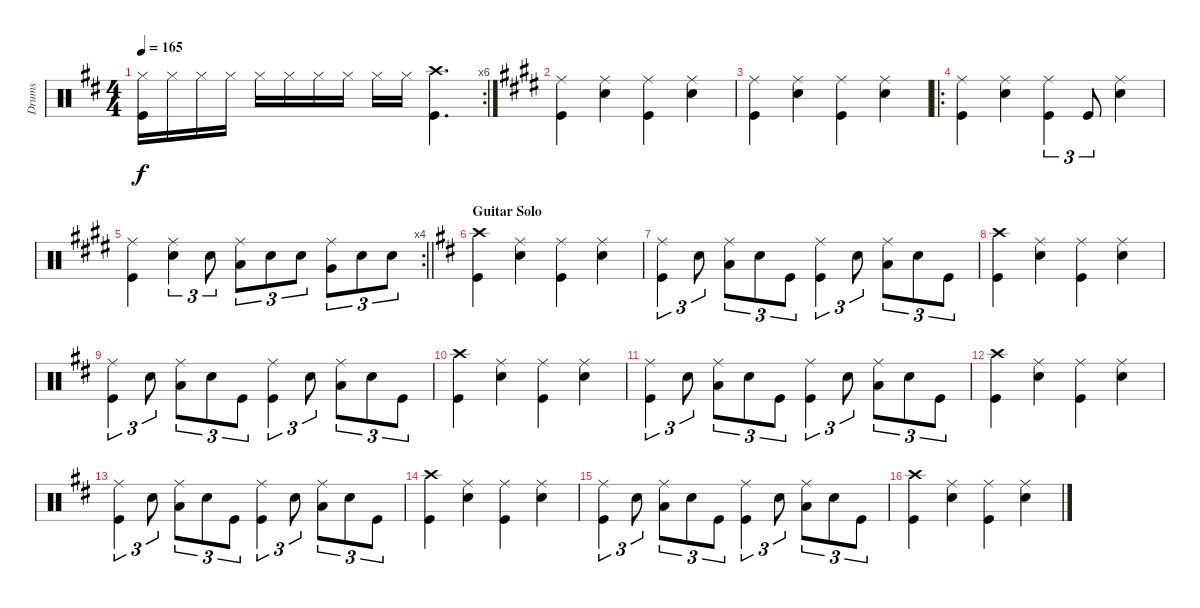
\track ("Drums" "Drums") {instrument percussion}
\staff {score}
\articulation defaults
\rc 6
\ts (4 4)
\tempo 165
\clef neutral
\ks d
("Hi-Hat (closed)" "Kick (hit)").16{dy f} "Hi-Hat (closed)".16 "Hi-Hat (closed)".16 "Hi-Hat (closed)".16 "Hi-Hat (closed)".16 "Hi-Hat (closed)".16 "Hi-Hat (closed)".16 "Hi-Hat (closed)".16 "Hi-Hat (closed)".16 "Hi-Hat (closed)".16 ("Crash high (hit)" "Kick (hit)").4{d} |
\ks e
("Ride (middle)" "Kick (hit)").4 ("Ride (middle)" "Snare (hit) 2").4 ("Ride (middle)" "Kick (hit)").4 ("Ride (middle)" "Snare (hit) 2").4 |
("Ride (middle)" "Kick (hit)").4 ("Ride (middle)" "Snare (hit) 2").4 ("Ride (middle)" "Kick (hit)").4 ("Ride (middle)" "Snare (hit) 2").4 |
\ro
("Ride (middle)" "Kick (hit)").4 ("Ride (middle)" "Snare (hit) 2").4 ("Ride (middle)" "Kick (hit)").4{tu (3 2)} "Kick (hit)".8{tu (3 2)} ("Ride (middle)" "Snare (hit) 2").4 |
\rc 4
\barLineRight lightlight
("Ride (middle)" "Kick (hit)").4 ("Ride (middle)" "Snare (hit) 2").4{tu (3 2)} "Snare (hit) 2".8{tu (3 2)} ("Ride (middle)" "Low Tom (hit)").8{tu (3 2)} "Snare (hit) 2".8{tu (3 2)} "Snare (hit) 2".8{tu (3 2)} ("Ride (middle)" "Very Low Tom (hit)").8{tu (3 2)} "Snare (hit) 2".8{tu (3 2)} "Snare (hit) 2".8{tu (3 2)} |
\section ("" "Guitar Solo")
\ks d
("Crash high (hit)" "Kick (hit)").4 ("Ride (middle)" "Snare (hit) 2").4 ("Ride (middle)" "Kick (hit)").4 ("Ride (middle)" "Snare (hit) 2").4 |
("Ride (middle)" "Kick (hit)").4{tu (3 2)} "Snare (hit) 2".8{tu (3 2)} ("Ride (middle)" "Low Tom (hit)").8{tu (3 2)} "Snare (hit) 2".8{tu (3 2)} "Kick (hit)".8{tu (3 2)} ("Ride (middle)" "Kick (hit)").4{tu (3 2)} "Snare (hit) 2".8{tu (3 2)} ("Ride (middle)" "Low Tom (hit)").8{tu (3 2)} "Snare (hit) 2".8{tu (3 2)} "Kick (hit)".8{tu (3 2)} |
("Crash high (hit)" "Kick (hit)").4 ("Ride (middle)" "Snare (hit) 2").4 ("Ride (middle)" "Kick (hit)").4 ("Ride (middle)" "Snare (hit) 2").4 |
("Ride (middle)" "Kick (hit)").4{tu (3 2)} "Snare (hit) 2".8{tu (3 2)} ("Ride (middle)" "Low Tom (hit)").8{tu (3 2)} "Snare (hit) 2".8{tu (3 2)} "Kick (hit)".8{tu (3 2)} ("Ride (middle)" "Kick (hit)").4{tu (3 2)} "Snare (hit) 2".8{tu (3 2)} ("Ride (middle)" "Low Tom (hit)").8{tu (3 2)} "Snare (hit) 2".8{tu (3 2)} "Kick (hit)".8{tu (3 2)} |
("Crash high (hit)" "Kick (hit)").4 ("Ride (middle)" "Snare (hit) 2").4 ("Ride (middle)" "Kick (hit)").4 ("Ride (middle)" "Snare (hit) 2").4 |
("Ride (middle)" "Kick (hit)").4{tu (3 2)} "Snare (hit) 2".8{tu (3 2)} ("Ride (middle)" "Low Tom (hit)").8{tu (3 2)} "Snare (hit) 2".8{tu (3 2)} "Kick (hit)".8{tu (3 2)} ("Ride (middle)" "Kick (hit)").4{tu (3 2)} "Snare (hit) 2".8{tu (3 2)} ("Ride (middle)" "Low Tom (hit)").8{tu (3 2)} "Snare (hit) 2".8{tu (3 2)} "Kick (hit)".8{tu (3 2)} |
("Crash high (hit)" "Kick (hit)").4 ("Ride (middle)" "Snare (hit) 2").4 ("Ride (middle)" "Kick (hit)").4 ("Ride (middle)" "Snare (hit) 2").4 |
("Ride (middle)" "Kick (hit)").4{tu (3 2)} "Snare (hit) 2".8{tu (3 2)} ("Ride (middle)" "Low Tom (hit)").8{tu (3 2)} "Snare (hit) 2".8{tu (3 2)} "Kick (hit)".8{tu (3 2)} ("Ride (middle)" "Kick (hit)").4{tu (3 2)} "Snare (hit) 2".8{tu (3 2)} ("Ride (middle)" "Low Tom (hit)").8{tu (3 2)} "Snare (hit) 2".8{tu (3 2)} "Kick (hit)".8{tu (3 2)} |
("Crash high (hit)" "Kick (hit)").4 ("Ride (middle)" "Snare (hit) 2").4 ("Ride (middle)" "Kick (hit)").4 ("Ride (middle)" "Snare (hit) 2").4 |
("Ride (middle)" "Kick (hit)").4{tu (3 2)} "Snare (hit) 2".8{tu (3 2)} ("Ride (middle)" "Low Tom (hit)").8{tu (3 2)} "Snare (hit) 2".8{tu (3 2)} "Kick (hit)".8{tu (3 2)} ("Ride (middle)" "Kick (hit)").4{tu (3 2)} "Snare (hit) 2".8{tu (3 2)} ("Ride (middle)" "Low Tom (hit)").8{tu (3 2)} "Snare (hit) 2".8{tu (3 2)} "Kick (hit)".8{tu (3 2)} |
("Crash high (hit)" "Kick (hit)").4 ("Ride (middle)" "Snare (hit) 2").4 ("Ride (middle)" "Kick (hit)").4 ("Ride (middle)" "Snare (hit) 2").4
